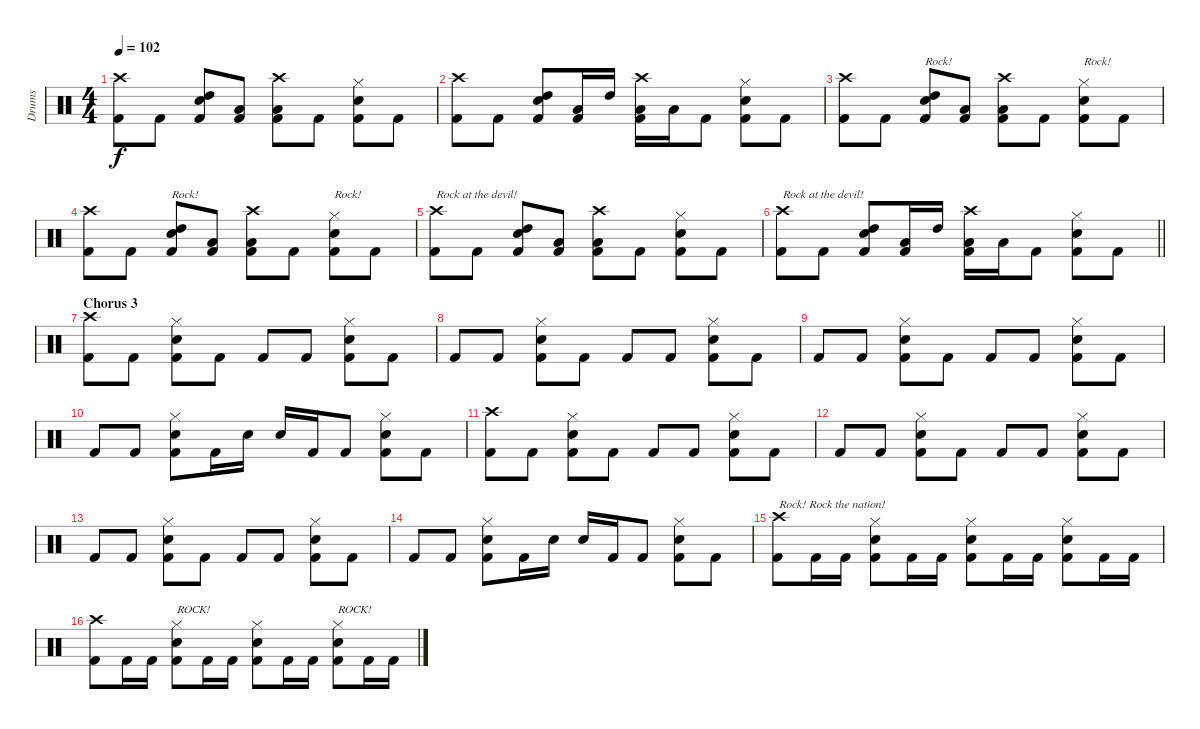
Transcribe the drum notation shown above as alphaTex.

\track ("Drums" "Drums") {instrument percussion}
\staff {score}
\articulation defaults
\ts (4 4)
\tempo 102
\clef neutral
\ks c
("Crash high (hit)" "Kick (hit) 2").8{dy f} "Kick (hit) 2".8 ("High Tom (hit)" "Snare (hit) 2" "Kick (hit) 2").8 ("Low Tom (hit)" "Kick (hit) 2").8 ("Crash high (hit)" "Low Tom (hit)" "Kick (hit) 2").8 "Kick (hit) 2".8 ("Hi-Hat (closed)" "Snare (hit) 2" "Kick (hit) 2").8 "Kick (hit) 2".8 |
("Crash high (hit)" "Kick (hit) 2").8 "Kick (hit) 2".8 ("High Tom (hit)" "Snare (hit) 2" "Kick (hit) 2").8 ("Low Tom (hit)" "Kick (hit) 2").16 "High Tom (hit)".16 ("Crash high (hit)" "Low Tom (hit)" "Kick (hit) 2").16 "Low Tom (hit)".16 "Kick (hit) 2".8 ("Hi-Hat (closed)" "Snare (hit) 2" "Kick (hit) 2").8 "Kick (hit) 2".8 |
("Crash high (hit)" "Kick (hit) 2").8 "Kick (hit) 2".8 ("High Tom (hit)" "Snare (hit) 2" "Kick (hit) 2").8{txt "Rock!"} ("Low Tom (hit)" "Kick (hit) 2").8 ("Crash high (hit)" "Low Tom (hit)" "Kick (hit) 2").8 "Kick (hit) 2".8 ("Hi-Hat (closed)" "Snare (hit) 2" "Kick (hit) 2").8{txt "Rock!"} "Kick (hit) 2".8 |
("Crash high (hit)" "Kick (hit) 2").8 "Kick (hit) 2".8 ("High Tom (hit)" "Snare (hit) 2" "Kick (hit) 2").8{txt "Rock!"} ("Low Tom (hit)" "Kick (hit) 2").8 ("Crash high (hit)" "Low Tom (hit)" "Kick (hit) 2").8 "Kick (hit) 2".8 ("Hi-Hat (closed)" "Snare (hit) 2" "Kick (hit) 2").8{txt "Rock!"} "Kick (hit) 2".8 |
("Crash high (hit)" "Kick (hit) 2").8{txt "Rock at the devil!"} "Kick (hit) 2".8 ("High Tom (hit)" "Snare (hit) 2" "Kick (hit) 2").8 ("Low Tom (hit)" "Kick (hit) 2").8 ("Crash high (hit)" "Low Tom (hit)" "Kick (hit) 2").8 "Kick (hit) 2".8 ("Hi-Hat (closed)" "Snare (hit) 2" "Kick (hit) 2").8 "Kick (hit) 2".8 |
\barLineRight lightlight
("Crash high (hit)" "Kick (hit) 2").8{txt "Rock at the devil!"} "Kick (hit) 2".8 ("High Tom (hit)" "Snare (hit) 2" "Kick (hit) 2").8 ("Low Tom (hit)" "Kick (hit) 2").16 "High Tom (hit)".16 ("Crash high (hit)" "Low Tom (hit)" "Kick (hit) 2").16 "Low Tom (hit)".16 "Kick (hit) 2".8 ("Hi-Hat (closed)" "Snare (hit) 2" "Kick (hit) 2").8 "Kick (hit) 2".8 |
\section ("" "Chorus 3")
("Crash high (hit)" "Kick (hit) 2").8 "Kick (hit) 2".8 ("Hi-Hat (closed)" "Snare (hit) 2" "Kick (hit) 2").8 "Kick (hit) 2".8 "Kick (hit) 2".8 "Kick (hit) 2".8 ("Hi-Hat (closed)" "Snare (hit) 2" "Kick (hit) 2").8 "Kick (hit) 2".8 |
"Kick (hit) 2".8 "Kick (hit) 2".8 ("Hi-Hat (closed)" "Snare (hit) 2" "Kick (hit) 2").8 "Kick (hit) 2".8 "Kick (hit) 2".8 "Kick (hit) 2".8 ("Hi-Hat (closed)" "Snare (hit) 2" "Kick (hit) 2").8 "Kick (hit) 2".8 |
"Kick (hit) 2".8 "Kick (hit) 2".8 ("Hi-Hat (closed)" "Snare (hit) 2" "Kick (hit) 2").8 "Kick (hit) 2".8 "Kick (hit) 2".8 "Kick (hit) 2".8 ("Hi-Hat (closed)" "Snare (hit) 2" "Kick (hit) 2").8 "Kick (hit) 2".8 |
"Kick (hit) 2".8 "Kick (hit) 2".8 ("Hi-Hat (closed)" "Snare (hit) 2" "Kick (hit) 2").8 "Kick (hit) 2".16 "Snare (hit) 2".16 "Snare (hit) 2".16 "Kick (hit) 2".16 "Kick (hit) 2".8 ("Hi-Hat (closed)" "Snare (hit) 2" "Kick (hit) 2").8 "Kick (hit) 2".8 |
("Crash high (hit)" "Kick (hit) 2").8 "Kick (hit) 2".8 ("Hi-Hat (closed)" "Snare (hit) 2" "Kick (hit) 2").8 "Kick (hit) 2".8 "Kick (hit) 2".8 "Kick (hit) 2".8 ("Hi-Hat (closed)" "Snare (hit) 2" "Kick (hit) 2").8 "Kick (hit) 2".8 |
"Kick (hit) 2".8 "Kick (hit) 2".8 ("Hi-Hat (closed)" "Snare (hit) 2" "Kick (hit) 2").8 "Kick (hit) 2".8 "Kick (hit) 2".8 "Kick (hit) 2".8 ("Hi-Hat (closed)" "Snare (hit) 2" "Kick (hit) 2").8 "Kick (hit) 2".8 |
"Kick (hit) 2".8 "Kick (hit) 2".8 ("Hi-Hat (closed)" "Snare (hit) 2" "Kick (hit) 2").8 "Kick (hit) 2".8 "Kick (hit) 2".8 "Kick (hit) 2".8 ("Hi-Hat (closed)" "Snare (hit) 2" "Kick (hit) 2").8 "Kick (hit) 2".8 |
"Kick (hit) 2".8 "Kick (hit) 2".8 ("Hi-Hat (closed)" "Snare (hit) 2" "Kick (hit) 2").8 "Kick (hit) 2".16 "Snare (hit) 2".16 "Snare (hit) 2".16 "Kick (hit) 2".16 "Kick (hit) 2".8 ("Hi-Hat (closed)" "Snare (hit) 2" "Kick (hit) 2").8 "Kick (hit) 2".8 |
("Crash high (hit)" "Kick (hit) 2").8{txt "Rock! Rock the nation!"} "Kick (hit) 2".16 "Kick (hit) 2".16 ("Hi-Hat (closed)" "Snare (hit) 2" "Kick (hit) 2").8 "Kick (hit) 2".16 "Kick (hit) 2".16 ("Hi-Hat (closed)" "Snare (hit) 2" "Kick (hit) 2").8 "Kick (hit) 2".16 "Kick (hit) 2".16 ("Hi-Hat (closed)" "Snare (hit) 2" "Kick (hit) 2").8 "Kick (hit) 2".16 "Kick (hit) 2".16 |
("Crash high (hit)" "Kick (hit) 2").8 "Kick (hit) 2".16 "Kick (hit) 2".16 ("Hi-Hat (closed)" "Snare (hit) 2" "Kick (hit) 2").8{txt "ROCK!"} "Kick (hit) 2".16 "Kick (hit) 2".16 ("Hi-Hat (closed)" "Snare (hit) 2" "Kick (hit) 2").8 "Kick (hit) 2".16 "Kick (hit) 2".16 ("Hi-Hat (closed)" "Snare (hit) 2" "Kick (hit) 2").8{txt "ROCK!"} "Kick (hit) 2".16 "Kick (hit) 2".16
